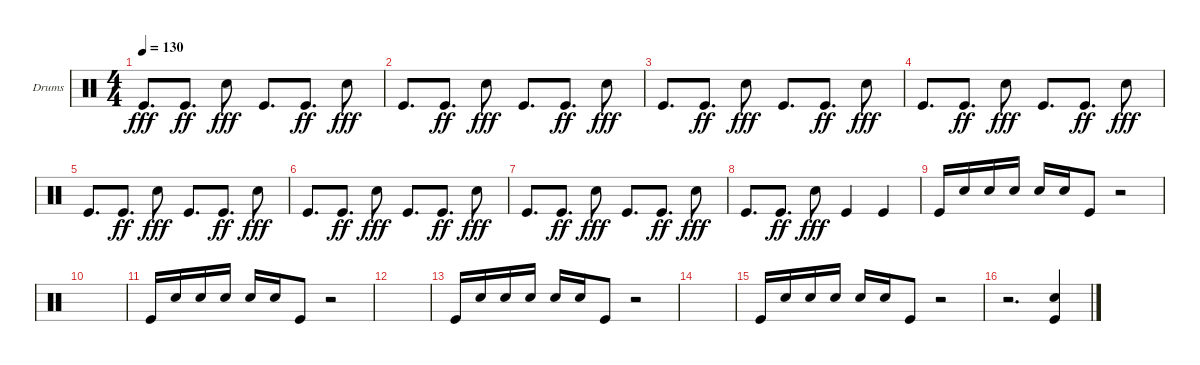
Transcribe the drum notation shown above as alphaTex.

\defaultSystemsLayout 4
\bracketExtendMode groupsimilarinstruments
\firstSystemTrackNameOrientation horizontal
\otherSystemsTrackNameOrientation horizontal
\track ("Helders" "Drums") {instrument percussion}
\staff {score}
\articulation defaults
\ts (4 4)
\tempo 130
\clef neutral
\ks c "Kick (hit)".8{d dy fff} "Kick (hit)".8{d dy ff} "Snare (hit) 2".8{dy fff} "Kick (hit)".8{d} "Kick (hit)".8{d dy ff} "Snare (hit) 2".8{dy fff}
|
"Kick (hit)".8{d} "Kick (hit)".8{d dy ff} "Snare (hit) 2".8{dy fff} "Kick (hit)".8{d} "Kick (hit)".8{d dy ff} "Snare (hit) 2".8{dy fff} |
"Kick (hit)".8{d} "Kick (hit)".8{d dy ff} "Snare (hit) 2".8{dy fff} "Kick (hit)".8{d} "Kick (hit)".8{d dy ff} "Snare (hit) 2".8{dy fff} |
"Kick (hit)".8{d} "Kick (hit)".8{d dy ff} "Snare (hit) 2".8{dy fff} "Kick (hit)".8{d} "Kick (hit)".8{d dy ff} "Snare (hit) 2".8{dy fff} |
"Kick (hit)".8{d} "Kick (hit)".8{d dy ff} "Snare (hit) 2".8{dy fff} "Kick (hit)".8{d} "Kick (hit)".8{d dy ff} "Snare (hit) 2".8{dy fff} |
"Kick (hit)".8{d} "Kick (hit)".8{d dy ff} "Snare (hit) 2".8{dy fff} "Kick (hit)".8{d} "Kick (hit)".8{d dy ff} "Snare (hit) 2".8{dy fff} |
"Kick (hit)".8{d} "Kick (hit)".8{d dy ff} "Snare (hit) 2".8{dy fff} "Kick (hit)".8{d} "Kick (hit)".8{d dy ff} "Snare (hit) 2".8{dy fff} |
"Kick (hit)".8{d} "Kick (hit)".8{d dy ff} "Snare (hit) 2".8{dy fff} "Kick (hit)".4 "Kick (hit)".4 |
"Kick (hit)".16 "Snare (hit) 2".16 "Snare (hit) 2".16 "Snare (hit) 2".16 "Snare (hit) 2".16 "Snare (hit) 2".16 "Kick (hit)".8 r.2 |
|
"Kick (hit)".16 "Snare (hit) 2".16 "Snare (hit) 2".16 "Snare (hit) 2".16 "Snare (hit) 2".16 "Snare (hit) 2".16 "Kick (hit)".8 r.2 |
|
"Kick (hit)".16 "Snare (hit) 2".16 "Snare (hit) 2".16 "Snare (hit) 2".16 "Snare (hit) 2".16 "Snare (hit) 2".16 "Kick (hit)".8 r.2 |
|
"Kick (hit)".16 "Snare (hit) 2".16 "Snare (hit) 2".16 "Snare (hit) 2".16 "Snare (hit) 2".16 "Snare (hit) 2".16 "Kick (hit)".8 r.2 |
r.2{d} ("Kick (hit)" "Snare (hit) 2").4
